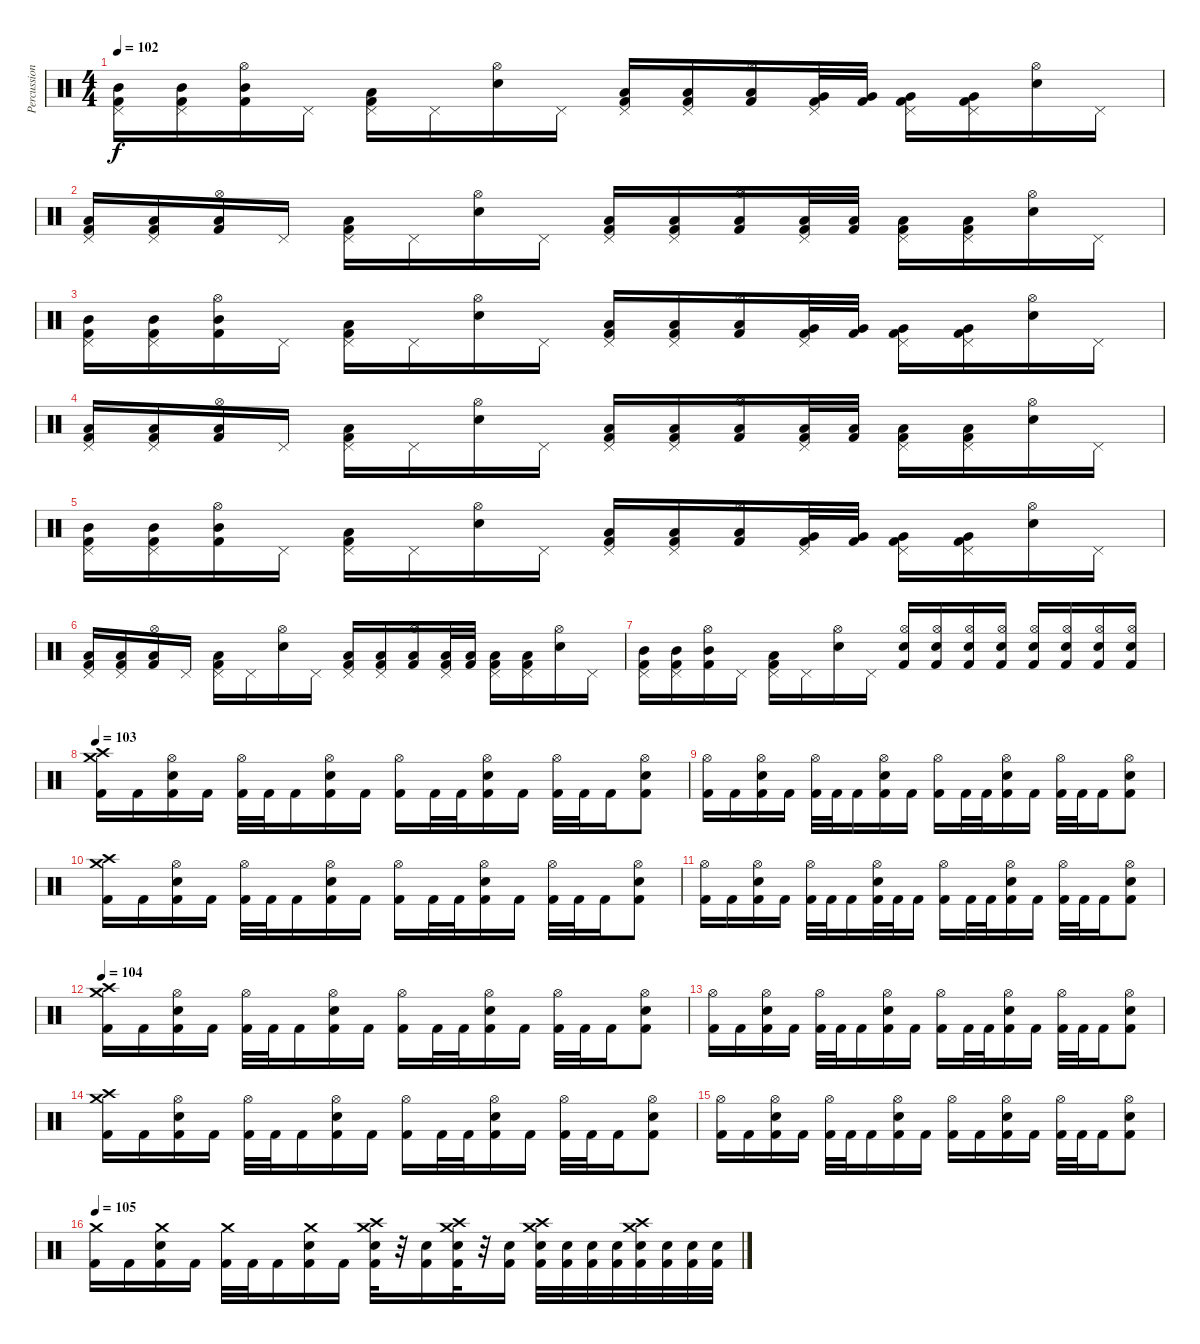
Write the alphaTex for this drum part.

\track ("Percussion" "Percussion") {instrument percussion}
\staff {score}
\articulation defaults
\ts (4 4)
\tempo 102
\clef neutral
\ks c
("Pedal Hi-Hat (hit)" "Mid Tom (hit)" "Kick (hit) 2").16{dy f} ("Pedal Hi-Hat (hit)" "Mid Tom (hit)" "Kick (hit) 2").16 ("Hi-Hat (open)" "Mid Tom (hit)" "Kick (hit) 2").16 "Pedal Hi-Hat (hit)".16 ("Pedal Hi-Hat (hit)" "Low Floor Tom (hit)" "Kick (hit) 2").16 "Pedal Hi-Hat (hit)".16 ("Hi-Hat (open)" "Electric Snare (hit)").16 "Pedal Hi-Hat (hit)".16 ("Pedal Hi-Hat (hit)" "Low Tom (hit)" "Kick (hit) 2").16 ("Pedal Hi-Hat (hit)" "Low Tom (hit)" "Kick (hit) 2").16 ("Hi-Hat (open)" "Low Tom (hit)" "Kick (hit) 2").16 ("Pedal Hi-Hat (hit)" "Very Low Tom (hit)" "Kick (hit) 2").32 ("Very Low Tom (hit)" "Kick (hit) 2").32 ("Pedal Hi-Hat (hit)" "Very Low Tom (hit)" "Kick (hit) 2").16 ("Pedal Hi-Hat (hit)" "Very Low Tom (hit)" "Kick (hit) 2").16 ("Hi-Hat (open)" "Electric Snare (hit)").16 "Pedal Hi-Hat (hit)".16 |
("Pedal Hi-Hat (hit)" "Low Floor Tom (hit)" "Kick (hit) 2").16 ("Pedal Hi-Hat (hit)" "Low Floor Tom (hit)" "Kick (hit) 2").16 ("Hi-Hat (open)" "Low Floor Tom (hit)" "Kick (hit) 2").16 "Pedal Hi-Hat (hit)".16 ("Pedal Hi-Hat (hit)" "Low Floor Tom (hit)" "Kick (hit) 2").16 "Pedal Hi-Hat (hit)".16 ("Hi-Hat (open)" "Electric Snare (hit)").16 "Pedal Hi-Hat (hit)".16 ("Pedal Hi-Hat (hit)" "Low Floor Tom (hit)" "Kick (hit) 2").16 ("Pedal Hi-Hat (hit)" "Low Floor Tom (hit)" "Kick (hit) 2").16 ("Hi-Hat (open)" "Low Floor Tom (hit)" "Kick (hit) 2").16 ("Pedal Hi-Hat (hit)" "Low Floor Tom (hit)" "Kick (hit) 2").32 ("Low Floor Tom (hit)" "Kick (hit) 2").32 ("Pedal Hi-Hat (hit)" "Low Floor Tom (hit)" "Kick (hit) 2").16 ("Pedal Hi-Hat (hit)" "Low Floor Tom (hit)" "Kick (hit) 2").16 ("Hi-Hat (open)" "Electric Snare (hit)").16 "Pedal Hi-Hat (hit)".16 |
("Pedal Hi-Hat (hit)" "Mid Tom (hit)" "Kick (hit) 2").16 ("Pedal Hi-Hat (hit)" "Mid Tom (hit)" "Kick (hit) 2").16 ("Hi-Hat (open)" "Mid Tom (hit)" "Kick (hit) 2").16 "Pedal Hi-Hat (hit)".16 ("Pedal Hi-Hat (hit)" "Low Floor Tom (hit)" "Kick (hit) 2").16 "Pedal Hi-Hat (hit)".16 ("Hi-Hat (open)" "Electric Snare (hit)").16 "Pedal Hi-Hat (hit)".16 ("Pedal Hi-Hat (hit)" "Low Tom (hit)" "Kick (hit) 2").16 ("Pedal Hi-Hat (hit)" "Low Tom (hit)" "Kick (hit) 2").16 ("Hi-Hat (open)" "Low Tom (hit)" "Kick (hit) 2").16 ("Pedal Hi-Hat (hit)" "Very Low Tom (hit)" "Kick (hit) 2").32 ("Very Low Tom (hit)" "Kick (hit) 2").32 ("Pedal Hi-Hat (hit)" "Very Low Tom (hit)" "Kick (hit) 2").16 ("Pedal Hi-Hat (hit)" "Very Low Tom (hit)" "Kick (hit) 2").16 ("Hi-Hat (open)" "Electric Snare (hit)").16 "Pedal Hi-Hat (hit)".16 |
("Pedal Hi-Hat (hit)" "Low Floor Tom (hit)" "Kick (hit) 2").16 ("Pedal Hi-Hat (hit)" "Low Floor Tom (hit)" "Kick (hit) 2").16 ("Hi-Hat (open)" "Low Floor Tom (hit)" "Kick (hit) 2").16 "Pedal Hi-Hat (hit)".16 ("Pedal Hi-Hat (hit)" "Low Floor Tom (hit)" "Kick (hit) 2").16 "Pedal Hi-Hat (hit)".16 ("Hi-Hat (open)" "Electric Snare (hit)").16 "Pedal Hi-Hat (hit)".16 ("Pedal Hi-Hat (hit)" "Low Floor Tom (hit)" "Kick (hit) 2").16 ("Pedal Hi-Hat (hit)" "Low Floor Tom (hit)" "Kick (hit) 2").16 ("Hi-Hat (open)" "Low Floor Tom (hit)" "Kick (hit) 2").16 ("Pedal Hi-Hat (hit)" "Low Floor Tom (hit)" "Kick (hit) 2").32 ("Low Floor Tom (hit)" "Kick (hit) 2").32 ("Pedal Hi-Hat (hit)" "Low Floor Tom (hit)" "Kick (hit) 2").16 ("Pedal Hi-Hat (hit)" "Low Floor Tom (hit)" "Kick (hit) 2").16 ("Hi-Hat (open)" "Electric Snare (hit)").16 "Pedal Hi-Hat (hit)".16 |
("Pedal Hi-Hat (hit)" "Mid Tom (hit)" "Kick (hit) 2").16 ("Pedal Hi-Hat (hit)" "Mid Tom (hit)" "Kick (hit) 2").16 ("Hi-Hat (open)" "Mid Tom (hit)" "Kick (hit) 2").16 "Pedal Hi-Hat (hit)".16 ("Pedal Hi-Hat (hit)" "Low Floor Tom (hit)" "Kick (hit) 2").16 "Pedal Hi-Hat (hit)".16 ("Hi-Hat (open)" "Electric Snare (hit)").16 "Pedal Hi-Hat (hit)".16 ("Pedal Hi-Hat (hit)" "Low Tom (hit)" "Kick (hit) 2").16 ("Pedal Hi-Hat (hit)" "Low Tom (hit)" "Kick (hit) 2").16 ("Hi-Hat (open)" "Low Tom (hit)" "Kick (hit) 2").16 ("Pedal Hi-Hat (hit)" "Very Low Tom (hit)" "Kick (hit) 2").32 ("Very Low Tom (hit)" "Kick (hit) 2").32 ("Pedal Hi-Hat (hit)" "Very Low Tom (hit)" "Kick (hit) 2").16 ("Pedal Hi-Hat (hit)" "Very Low Tom (hit)" "Kick (hit) 2").16 ("Hi-Hat (open)" "Electric Snare (hit)").16 "Pedal Hi-Hat (hit)".16 |
("Pedal Hi-Hat (hit)" "Low Floor Tom (hit)" "Kick (hit) 2").16 ("Pedal Hi-Hat (hit)" "Low Floor Tom (hit)" "Kick (hit) 2").16 ("Hi-Hat (open)" "Low Floor Tom (hit)" "Kick (hit) 2").16 "Pedal Hi-Hat (hit)".16 ("Pedal Hi-Hat (hit)" "Low Floor Tom (hit)" "Kick (hit) 2").16 "Pedal Hi-Hat (hit)".16 ("Hi-Hat (open)" "Electric Snare (hit)").16 "Pedal Hi-Hat (hit)".16 ("Pedal Hi-Hat (hit)" "Low Floor Tom (hit)" "Kick (hit) 2").16 ("Pedal Hi-Hat (hit)" "Low Floor Tom (hit)" "Kick (hit) 2").16 ("Hi-Hat (open)" "Low Floor Tom (hit)" "Kick (hit) 2").16 ("Pedal Hi-Hat (hit)" "Low Floor Tom (hit)" "Kick (hit) 2").32 ("Low Floor Tom (hit)" "Kick (hit) 2").32 ("Pedal Hi-Hat (hit)" "Low Floor Tom (hit)" "Kick (hit) 2").16 ("Pedal Hi-Hat (hit)" "Low Floor Tom (hit)" "Kick (hit) 2").16 ("Hi-Hat (open)" "Electric Snare (hit)").16 "Pedal Hi-Hat (hit)".16 |
("Pedal Hi-Hat (hit)" "Mid Tom (hit)" "Kick (hit) 2").16 ("Pedal Hi-Hat (hit)" "Mid Tom (hit)" "Kick (hit) 2").16 ("Hi-Hat (open)" "Mid Tom (hit)" "Kick (hit) 2").16 "Pedal Hi-Hat (hit)".16 ("Pedal Hi-Hat (hit)" "Low Floor Tom (hit)" "Kick (hit) 2").16 "Pedal Hi-Hat (hit)".16 ("Hi-Hat (open)" "Electric Snare (hit)").16 "Pedal Hi-Hat (hit)".16 ("Hi-Hat (open)" "Electric Snare (hit)" "Kick (hit) 2").16 ("Hi-Hat (open)" "Electric Snare (hit)" "Kick (hit) 2").16 ("Hi-Hat (open)" "Electric Snare (hit)" "Kick (hit) 2").16 ("Hi-Hat (open)" "Electric Snare (hit)" "Kick (hit) 2").16 ("Hi-Hat (open)" "Electric Snare (hit)" "Kick (hit) 2").16 ("Hi-Hat (open)" "Electric Snare (hit)" "Kick (hit) 2").16 ("Hi-Hat (open)" "Electric Snare (hit)" "Kick (hit) 2").16 ("Hi-Hat (open)" "Electric Snare (hit)" "Kick (hit) 2").16 |
\tempo 103
("Crash high (hit)" "Crash medium (hit)" "Kick (hit) 2").16 "Kick (hit) 2".16 ("Hi-Hat (open)" "Electric Snare (hit)" "Kick (hit) 2").16 "Kick (hit) 2".16 ("Hi-Hat (open)" "Kick (hit) 2").32 "Kick (hit) 2".32 "Kick (hit) 2".16 ("Hi-Hat (open)" "Electric Snare (hit)" "Kick (hit) 2").16 "Kick (hit) 2".16 ("Hi-Hat (open)" "Kick (hit) 2").16 "Kick (hit) 2".32 "Kick (hit) 2".32 ("Hi-Hat (open)" "Electric Snare (hit)" "Kick (hit) 2").16 "Kick (hit) 2".16 ("Hi-Hat (open)" "Kick (hit) 2").32 "Kick (hit) 2".32 "Kick (hit) 2".16 ("Hi-Hat (open)" "Electric Snare (hit)" "Kick (hit) 2").8 |
("Hi-Hat (open)" "Kick (hit) 2").16 "Kick (hit) 2".16 ("Hi-Hat (open)" "Electric Snare (hit)" "Kick (hit) 2").16 "Kick (hit) 2".16 ("Hi-Hat (open)" "Kick (hit) 2").32 "Kick (hit) 2".32 "Kick (hit) 2".16 ("Hi-Hat (open)" "Electric Snare (hit)" "Kick (hit) 2").16 "Kick (hit) 2".16 ("Hi-Hat (open)" "Kick (hit) 2").16 "Kick (hit) 2".32 "Kick (hit) 2".32 ("Hi-Hat (open)" "Electric Snare (hit)" "Kick (hit) 2").16 "Kick (hit) 2".16 ("Hi-Hat (open)" "Kick (hit) 2").32 "Kick (hit) 2".32 "Kick (hit) 2".16 ("Hi-Hat (open)" "Electric Snare (hit)" "Kick (hit) 2").8 |
("Crash high (hit)" "Crash medium (hit)" "Kick (hit) 2").16 "Kick (hit) 2".16 ("Hi-Hat (open)" "Electric Snare (hit)" "Kick (hit) 2").16 "Kick (hit) 2".16 ("Hi-Hat (open)" "Kick (hit) 2").32 "Kick (hit) 2".32 "Kick (hit) 2".16 ("Hi-Hat (open)" "Electric Snare (hit)" "Kick (hit) 2").16 "Kick (hit) 2".16 ("Hi-Hat (open)" "Kick (hit) 2").16 "Kick (hit) 2".32 "Kick (hit) 2".32 ("Hi-Hat (open)" "Electric Snare (hit)" "Kick (hit) 2").16 "Kick (hit) 2".16 ("Hi-Hat (open)" "Kick (hit) 2").32 "Kick (hit) 2".32 "Kick (hit) 2".16 ("Hi-Hat (open)" "Electric Snare (hit)" "Kick (hit) 2").8 |
("Hi-Hat (open)" "Kick (hit) 2").16 "Kick (hit) 2".16 ("Hi-Hat (open)" "Electric Snare (hit)" "Kick (hit) 2").16 "Kick (hit) 2".16 ("Hi-Hat (open)" "Kick (hit) 2").32 "Kick (hit) 2".32 "Kick (hit) 2".16 ("Hi-Hat (open)" "Electric Snare (hit)" "Kick (hit) 2").32 "Kick (hit) 2".32 "Kick (hit) 2".16 ("Hi-Hat (open)" "Kick (hit) 2").16 "Kick (hit) 2".32 "Kick (hit) 2".32 ("Hi-Hat (open)" "Electric Snare (hit)" "Kick (hit) 2").16 "Kick (hit) 2".16 ("Hi-Hat (open)" "Kick (hit) 2").32 "Kick (hit) 2".32 "Kick (hit) 2".16 ("Hi-Hat (open)" "Electric Snare (hit)" "Kick (hit) 2").8 |
\tempo 104
("Crash high (hit)" "Crash medium (hit)" "Kick (hit) 2").16 "Kick (hit) 2".16 ("Hi-Hat (open)" "Electric Snare (hit)" "Kick (hit) 2").16 "Kick (hit) 2".16 ("Hi-Hat (open)" "Kick (hit) 2").32 "Kick (hit) 2".32 "Kick (hit) 2".16 ("Hi-Hat (open)" "Electric Snare (hit)" "Kick (hit) 2").16 "Kick (hit) 2".16 ("Hi-Hat (open)" "Kick (hit) 2").16 "Kick (hit) 2".32 "Kick (hit) 2".32 ("Hi-Hat (open)" "Electric Snare (hit)" "Kick (hit) 2").16 "Kick (hit) 2".16 ("Hi-Hat (open)" "Kick (hit) 2").32 "Kick (hit) 2".32 "Kick (hit) 2".16 ("Hi-Hat (open)" "Electric Snare (hit)" "Kick (hit) 2").8 |
("Hi-Hat (open)" "Kick (hit) 2").16 "Kick (hit) 2".16 ("Hi-Hat (open)" "Electric Snare (hit)" "Kick (hit) 2").16 "Kick (hit) 2".16 ("Hi-Hat (open)" "Kick (hit) 2").32 "Kick (hit) 2".32 "Kick (hit) 2".16 ("Hi-Hat (open)" "Electric Snare (hit)" "Kick (hit) 2").16 "Kick (hit) 2".16 ("Hi-Hat (open)" "Kick (hit) 2").16 "Kick (hit) 2".32 "Kick (hit) 2".32 ("Hi-Hat (open)" "Electric Snare (hit)" "Kick (hit) 2").16 "Kick (hit) 2".16 ("Hi-Hat (open)" "Kick (hit) 2").32 "Kick (hit) 2".32 "Kick (hit) 2".16 ("Hi-Hat (open)" "Electric Snare (hit)" "Kick (hit) 2").8 |
("Crash high (hit)" "Crash medium (hit)" "Kick (hit) 2").16 "Kick (hit) 2".16 ("Hi-Hat (open)" "Electric Snare (hit)" "Kick (hit) 2").16 "Kick (hit) 2".16 ("Hi-Hat (open)" "Kick (hit) 2").32 "Kick (hit) 2".32 "Kick (hit) 2".16 ("Hi-Hat (open)" "Electric Snare (hit)" "Kick (hit) 2").16 "Kick (hit) 2".16 ("Hi-Hat (open)" "Kick (hit) 2").16 "Kick (hit) 2".32 "Kick (hit) 2".32 ("Hi-Hat (open)" "Electric Snare (hit)" "Kick (hit) 2").16 "Kick (hit) 2".16 ("Hi-Hat (open)" "Kick (hit) 2").32 "Kick (hit) 2".32 "Kick (hit) 2".16 ("Hi-Hat (open)" "Electric Snare (hit)" "Kick (hit) 2").8 |
("Hi-Hat (open)" "Kick (hit) 2").16 "Kick (hit) 2".16 ("Hi-Hat (open)" "Electric Snare (hit)" "Kick (hit) 2").16 "Kick (hit) 2".16 ("Hi-Hat (open)" "Kick (hit) 2").32 "Kick (hit) 2".32 "Kick (hit) 2".16 ("Hi-Hat (open)" "Electric Snare (hit)" "Kick (hit) 2").16 "Kick (hit) 2".16 ("Hi-Hat (open)" "Kick (hit) 2").16 "Kick (hit) 2".16 ("Hi-Hat (open)" "Electric Snare (hit)" "Kick (hit) 2").16 "Kick (hit) 2".16 ("Hi-Hat (open)" "Kick (hit) 2").32 "Kick (hit) 2".32 "Kick (hit) 2".16 ("Hi-Hat (open)" "Electric Snare (hit)" "Kick (hit) 2").8 |
\tempo 105
("Crash medium (hit)" "Kick (hit) 2").16 "Kick (hit) 2".16 ("Crash medium (hit)" "Electric Snare (hit)" "Kick (hit) 2").16 "Kick (hit) 2".16 ("Crash medium (hit)" "Kick (hit) 2").32 "Kick (hit) 2".32 "Kick (hit) 2".16 ("Crash medium (hit)" "Electric Snare (hit)" "Kick (hit) 2").16 "Kick (hit) 2".16 ("Crash high (hit)" "Crash medium (hit)" "Electric Snare (hit)" "Kick (hit) 2").32 r.32 ("Electric Snare (hit)" "Kick (hit) 2").16 ("Crash high (hit)" "Crash medium (hit)" "Electric Snare (hit)" "Kick (hit) 2").32 r.32 ("Electric Snare (hit)" "Kick (hit) 2").16 ("Crash high (hit)" "Crash medium (hit)" "Electric Snare (hit)" "Kick (hit) 2").32 ("Electric Snare (hit)" "Kick (hit) 2").32 ("Electric Snare (hit)" "Kick (hit) 2").32 ("Electric Snare (hit)" "Kick (hit) 2").32 ("Crash high (hit)" "Crash medium (hit)" "Electric Snare (hit)" "Kick (hit) 2").32 ("Electric Snare (hit)" "Kick (hit) 2").32 ("Electric Snare (hit)" "Kick (hit) 2").32 ("Electric Snare (hit)" "Kick (hit) 2").32
